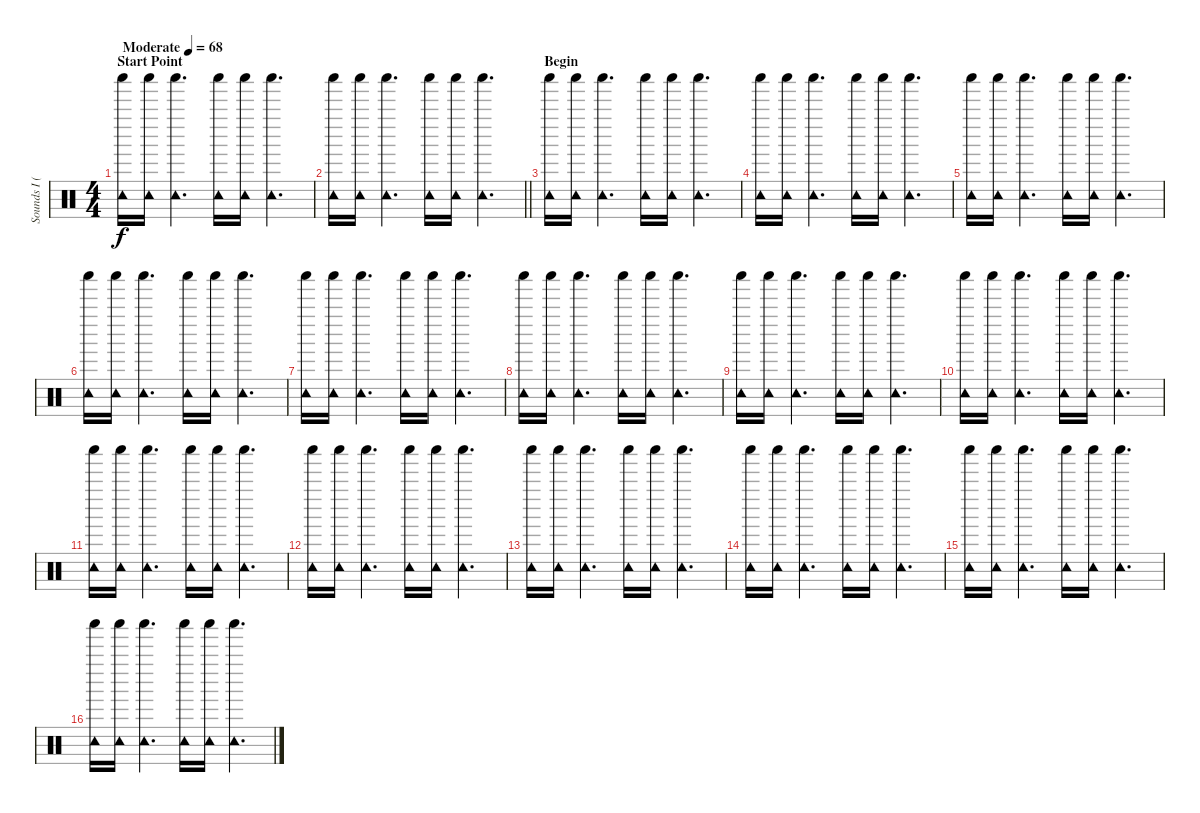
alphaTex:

\track ("Sounds I (Generic)" "Sounds I (") {instrument percussion}
\staff {score}
\articulation defaults
\ts (4 4)
\section ("" "Start Point")
\tempo (68 "Moderate")
\clef neutral
\ks c
("Tambourine (hit)" "Shaker (hit)").16{dy f} ("Tambourine (hit)" "Shaker (hit)").16 ("Tambourine (hit)" "Shaker (hit)").4{d} ("Tambourine (hit)" "Shaker (hit)").16 ("Tambourine (hit)" "Shaker (hit)").16 ("Tambourine (hit)" "Shaker (hit)").4{d} |
\barLineRight lightlight
("Tambourine (hit)" "Shaker (hit)").16 ("Tambourine (hit)" "Shaker (hit)").16 ("Tambourine (hit)" "Shaker (hit)").4{d} ("Tambourine (hit)" "Shaker (hit)").16 ("Tambourine (hit)" "Shaker (hit)").16 ("Tambourine (hit)" "Shaker (hit)").4{d} |
\section ("" "Begin")
("Tambourine (hit)" "Shaker (hit)").16 ("Tambourine (hit)" "Shaker (hit)").16 ("Tambourine (hit)" "Shaker (hit)").4{d} ("Tambourine (hit)" "Shaker (hit)").16 ("Tambourine (hit)" "Shaker (hit)").16 ("Tambourine (hit)" "Shaker (hit)").4{d} |
("Tambourine (hit)" "Shaker (hit)").16 ("Tambourine (hit)" "Shaker (hit)").16 ("Tambourine (hit)" "Shaker (hit)").4{d} ("Tambourine (hit)" "Shaker (hit)").16 ("Tambourine (hit)" "Shaker (hit)").16 ("Tambourine (hit)" "Shaker (hit)").4{d} |
("Tambourine (hit)" "Shaker (hit)").16 ("Tambourine (hit)" "Shaker (hit)").16 ("Tambourine (hit)" "Shaker (hit)").4{d} ("Tambourine (hit)" "Shaker (hit)").16 ("Tambourine (hit)" "Shaker (hit)").16 ("Tambourine (hit)" "Shaker (hit)").4{d} |
("Tambourine (hit)" "Shaker (hit)").16 ("Tambourine (hit)" "Shaker (hit)").16 ("Tambourine (hit)" "Shaker (hit)").4{d} ("Tambourine (hit)" "Shaker (hit)").16 ("Tambourine (hit)" "Shaker (hit)").16 ("Tambourine (hit)" "Shaker (hit)").4{d} |
("Tambourine (hit)" "Shaker (hit)").16 ("Tambourine (hit)" "Shaker (hit)").16 ("Tambourine (hit)" "Shaker (hit)").4{d} ("Tambourine (hit)" "Shaker (hit)").16 ("Tambourine (hit)" "Shaker (hit)").16 ("Tambourine (hit)" "Shaker (hit)").4{d} |
("Tambourine (hit)" "Shaker (hit)").16 ("Tambourine (hit)" "Shaker (hit)").16 ("Tambourine (hit)" "Shaker (hit)").4{d} ("Tambourine (hit)" "Shaker (hit)").16 ("Tambourine (hit)" "Shaker (hit)").16 ("Tambourine (hit)" "Shaker (hit)").4{d} |
("Tambourine (hit)" "Shaker (hit)").16 ("Tambourine (hit)" "Shaker (hit)").16 ("Tambourine (hit)" "Shaker (hit)").4{d} ("Tambourine (hit)" "Shaker (hit)").16 ("Tambourine (hit)" "Shaker (hit)").16 ("Tambourine (hit)" "Shaker (hit)").4{d} |
("Tambourine (hit)" "Shaker (hit)").16 ("Tambourine (hit)" "Shaker (hit)").16 ("Tambourine (hit)" "Shaker (hit)").4{d} ("Tambourine (hit)" "Shaker (hit)").16 ("Tambourine (hit)" "Shaker (hit)").16 ("Tambourine (hit)" "Shaker (hit)").4{d} |
("Tambourine (hit)" "Shaker (hit)").16 ("Tambourine (hit)" "Shaker (hit)").16 ("Tambourine (hit)" "Shaker (hit)").4{d} ("Tambourine (hit)" "Shaker (hit)").16 ("Tambourine (hit)" "Shaker (hit)").16 ("Tambourine (hit)" "Shaker (hit)").4{d} |
("Tambourine (hit)" "Shaker (hit)").16 ("Tambourine (hit)" "Shaker (hit)").16 ("Tambourine (hit)" "Shaker (hit)").4{d} ("Tambourine (hit)" "Shaker (hit)").16 ("Tambourine (hit)" "Shaker (hit)").16 ("Tambourine (hit)" "Shaker (hit)").4{d} |
("Tambourine (hit)" "Shaker (hit)").16 ("Tambourine (hit)" "Shaker (hit)").16 ("Tambourine (hit)" "Shaker (hit)").4{d} ("Tambourine (hit)" "Shaker (hit)").16 ("Tambourine (hit)" "Shaker (hit)").16 ("Tambourine (hit)" "Shaker (hit)").4{d} |
("Tambourine (hit)" "Shaker (hit)").16 ("Tambourine (hit)" "Shaker (hit)").16 ("Tambourine (hit)" "Shaker (hit)").4{d} ("Tambourine (hit)" "Shaker (hit)").16 ("Tambourine (hit)" "Shaker (hit)").16 ("Tambourine (hit)" "Shaker (hit)").4{d} |
("Tambourine (hit)" "Shaker (hit)").16 ("Tambourine (hit)" "Shaker (hit)").16 ("Tambourine (hit)" "Shaker (hit)").4{d} ("Tambourine (hit)" "Shaker (hit)").16 ("Tambourine (hit)" "Shaker (hit)").16 ("Tambourine (hit)" "Shaker (hit)").4{d} |
("Tambourine (hit)" "Shaker (hit)").16 ("Tambourine (hit)" "Shaker (hit)").16 ("Tambourine (hit)" "Shaker (hit)").4{d} ("Tambourine (hit)" "Shaker (hit)").16 ("Tambourine (hit)" "Shaker (hit)").16 ("Tambourine (hit)" "Shaker (hit)").4{d}
